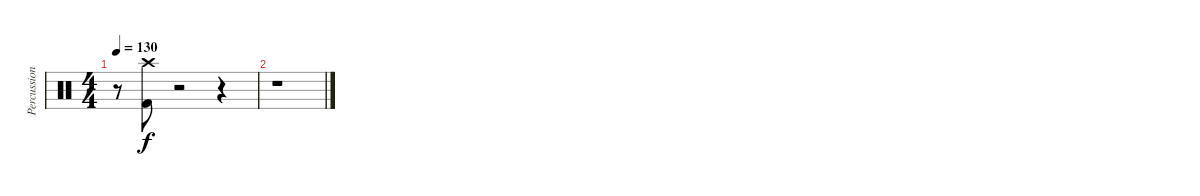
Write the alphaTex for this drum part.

\track ("Percussion" "Percussion") {instrument percussion}
\staff {score}
\articulation defaults
\ts (4 4)
\tempo 130
\clef neutral
\ks c
r.8{dy f} ("Kick (hit) 2" "Crash high (hit)").8 r.2 r.4 |
r.1
